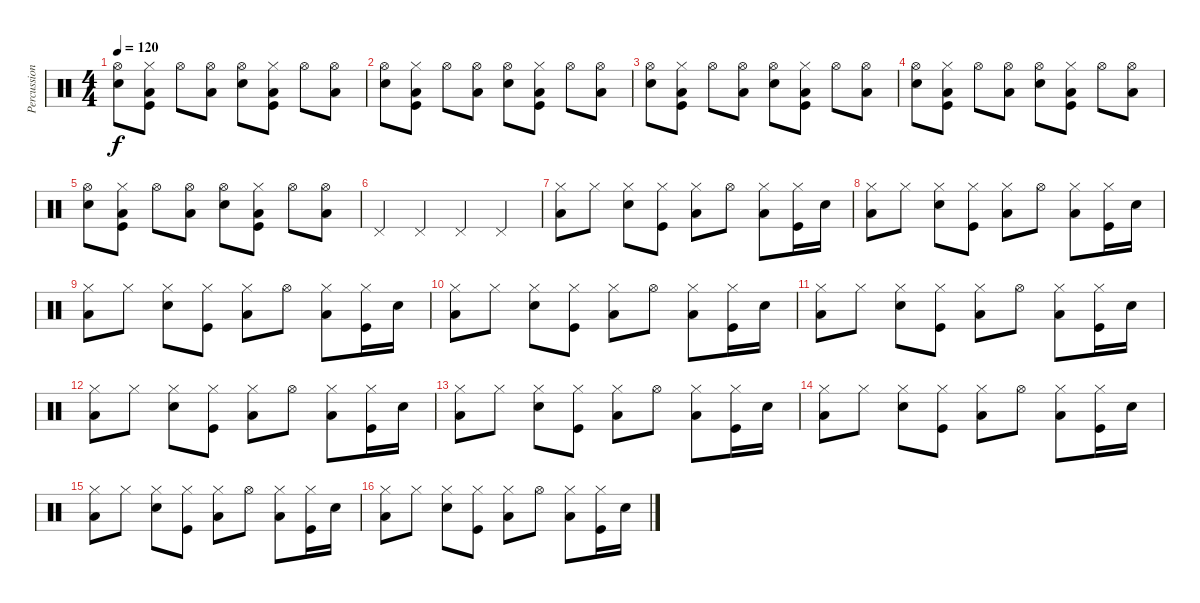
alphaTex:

\track ("Percussion" "Percussion") {instrument percussion}
\staff {score}
\articulation defaults
\ts (4 4)
\tempo 120
\clef neutral
\ks c
("Hi-Hat (open)" "Snare (hit) 2").8{dy f} ("Hi-Hat (closed)" "Low Floor Tom (hit)" "Kick (hit)").8 "Hi-Hat (open)".8 ("Hi-Hat (open)" "Low Floor Tom (hit)").8 ("Hi-Hat (open)" "Snare (hit) 2").8 ("Hi-Hat (closed)" "Low Floor Tom (hit)" "Kick (hit)").8 "Hi-Hat (open)".8 ("Hi-Hat (open)" "Low Floor Tom (hit)").8 |
("Hi-Hat (open)" "Snare (hit) 2").8 ("Hi-Hat (closed)" "Low Floor Tom (hit)" "Kick (hit)").8 "Hi-Hat (open)".8 ("Hi-Hat (open)" "Low Floor Tom (hit)").8 ("Hi-Hat (open)" "Snare (hit) 2").8 ("Hi-Hat (closed)" "Low Floor Tom (hit)" "Kick (hit)").8 "Hi-Hat (open)".8 ("Hi-Hat (open)" "Low Floor Tom (hit)").8 |
("Hi-Hat (open)" "Snare (hit) 2").8 ("Hi-Hat (closed)" "Low Floor Tom (hit)" "Kick (hit)").8 "Hi-Hat (open)".8 ("Hi-Hat (open)" "Low Floor Tom (hit)").8 ("Hi-Hat (open)" "Snare (hit) 2").8 ("Hi-Hat (closed)" "Low Floor Tom (hit)" "Kick (hit)").8 "Hi-Hat (open)".8 ("Hi-Hat (open)" "Low Floor Tom (hit)").8 |
("Hi-Hat (open)" "Snare (hit) 2").8 ("Hi-Hat (closed)" "Low Floor Tom (hit)" "Kick (hit)").8 "Hi-Hat (open)".8 ("Hi-Hat (open)" "Low Floor Tom (hit)").8 ("Hi-Hat (open)" "Snare (hit) 2").8 ("Hi-Hat (closed)" "Low Floor Tom (hit)" "Kick (hit)").8 "Hi-Hat (open)".8 ("Hi-Hat (open)" "Low Floor Tom (hit)").8 |
("Hi-Hat (open)" "Snare (hit) 2").8 ("Hi-Hat (closed)" "Low Floor Tom (hit)" "Kick (hit)").8 "Hi-Hat (open)".8 ("Hi-Hat (open)" "Low Floor Tom (hit)").8 ("Hi-Hat (open)" "Snare (hit) 2").8 ("Hi-Hat (closed)" "Low Floor Tom (hit)" "Kick (hit)").8 "Hi-Hat (open)".8 ("Hi-Hat (open)" "Low Floor Tom (hit)").8 |
"Pedal Hi-Hat (hit)".4 "Pedal Hi-Hat (hit)".4 "Pedal Hi-Hat (hit)".4 "Pedal Hi-Hat (hit)".4 |
("Hi-Hat (closed)" "Low Tom (hit)").8 "Hi-Hat (closed)".8 ("Hi-Hat (closed)" "Snare (hit) 2").8 ("Hi-Hat (closed)" "Kick (hit)").8 ("Hi-Hat (closed)" "Low Tom (hit)").8 "Hi-Hat (open)".8 ("Hi-Hat (closed)" "Low Tom (hit)").8 ("Hi-Hat (closed)" "Kick (hit)").16 "Snare (hit) 2".16 |
("Hi-Hat (closed)" "Low Tom (hit)").8 "Hi-Hat (closed)".8 ("Hi-Hat (closed)" "Snare (hit) 2").8 ("Hi-Hat (closed)" "Kick (hit)").8 ("Hi-Hat (closed)" "Low Tom (hit)").8 "Hi-Hat (open)".8 ("Hi-Hat (closed)" "Low Tom (hit)").8 ("Hi-Hat (closed)" "Kick (hit)").16 "Snare (hit) 2".16 |
("Hi-Hat (closed)" "Low Tom (hit)").8 "Hi-Hat (closed)".8 ("Hi-Hat (closed)" "Snare (hit) 2").8 ("Hi-Hat (closed)" "Kick (hit)").8 ("Hi-Hat (closed)" "Low Tom (hit)").8 "Hi-Hat (open)".8 ("Hi-Hat (closed)" "Low Tom (hit)").8 ("Hi-Hat (closed)" "Kick (hit)").16 "Snare (hit) 2".16 |
("Hi-Hat (closed)" "Low Tom (hit)").8 "Hi-Hat (closed)".8 ("Hi-Hat (closed)" "Snare (hit) 2").8 ("Hi-Hat (closed)" "Kick (hit)").8 ("Hi-Hat (closed)" "Low Tom (hit)").8 "Hi-Hat (open)".8 ("Hi-Hat (closed)" "Low Tom (hit)").8 ("Hi-Hat (closed)" "Kick (hit)").16 "Snare (hit) 2".16 |
("Hi-Hat (closed)" "Low Tom (hit)").8 "Hi-Hat (closed)".8 ("Hi-Hat (closed)" "Snare (hit) 2").8 ("Hi-Hat (closed)" "Kick (hit)").8 ("Hi-Hat (closed)" "Low Tom (hit)").8 "Hi-Hat (open)".8 ("Hi-Hat (closed)" "Low Tom (hit)").8 ("Hi-Hat (closed)" "Kick (hit)").16 "Snare (hit) 2".16 |
("Hi-Hat (closed)" "Low Tom (hit)").8 "Hi-Hat (closed)".8 ("Hi-Hat (closed)" "Snare (hit) 2").8 ("Hi-Hat (closed)" "Kick (hit)").8 ("Hi-Hat (closed)" "Low Tom (hit)").8 "Hi-Hat (open)".8 ("Hi-Hat (closed)" "Low Tom (hit)").8 ("Hi-Hat (closed)" "Kick (hit)").16 "Snare (hit) 2".16 |
("Hi-Hat (closed)" "Low Tom (hit)").8 "Hi-Hat (closed)".8 ("Hi-Hat (closed)" "Snare (hit) 2").8 ("Hi-Hat (closed)" "Kick (hit)").8 ("Hi-Hat (closed)" "Low Tom (hit)").8 "Hi-Hat (open)".8 ("Hi-Hat (closed)" "Low Tom (hit)").8 ("Hi-Hat (closed)" "Kick (hit)").16 "Snare (hit) 2".16 |
("Hi-Hat (closed)" "Low Tom (hit)").8 "Hi-Hat (closed)".8 ("Hi-Hat (closed)" "Snare (hit) 2").8 ("Hi-Hat (closed)" "Kick (hit)").8 ("Hi-Hat (closed)" "Low Tom (hit)").8 "Hi-Hat (open)".8 ("Hi-Hat (closed)" "Low Tom (hit)").8 ("Hi-Hat (closed)" "Kick (hit)").16 "Snare (hit) 2".16 |
("Hi-Hat (closed)" "Low Tom (hit)").8 "Hi-Hat (closed)".8 ("Hi-Hat (closed)" "Snare (hit) 2").8 ("Hi-Hat (closed)" "Kick (hit)").8 ("Hi-Hat (closed)" "Low Tom (hit)").8 "Hi-Hat (open)".8 ("Hi-Hat (closed)" "Low Tom (hit)").8 ("Hi-Hat (closed)" "Kick (hit)").16 "Snare (hit) 2".16 |
("Hi-Hat (closed)" "Low Tom (hit)").8 "Hi-Hat (closed)".8 ("Hi-Hat (closed)" "Snare (hit) 2").8 ("Hi-Hat (closed)" "Kick (hit)").8 ("Hi-Hat (closed)" "Low Tom (hit)").8 "Hi-Hat (open)".8 ("Hi-Hat (closed)" "Low Tom (hit)").8 ("Hi-Hat (closed)" "Kick (hit)").16 "Snare (hit) 2".16
